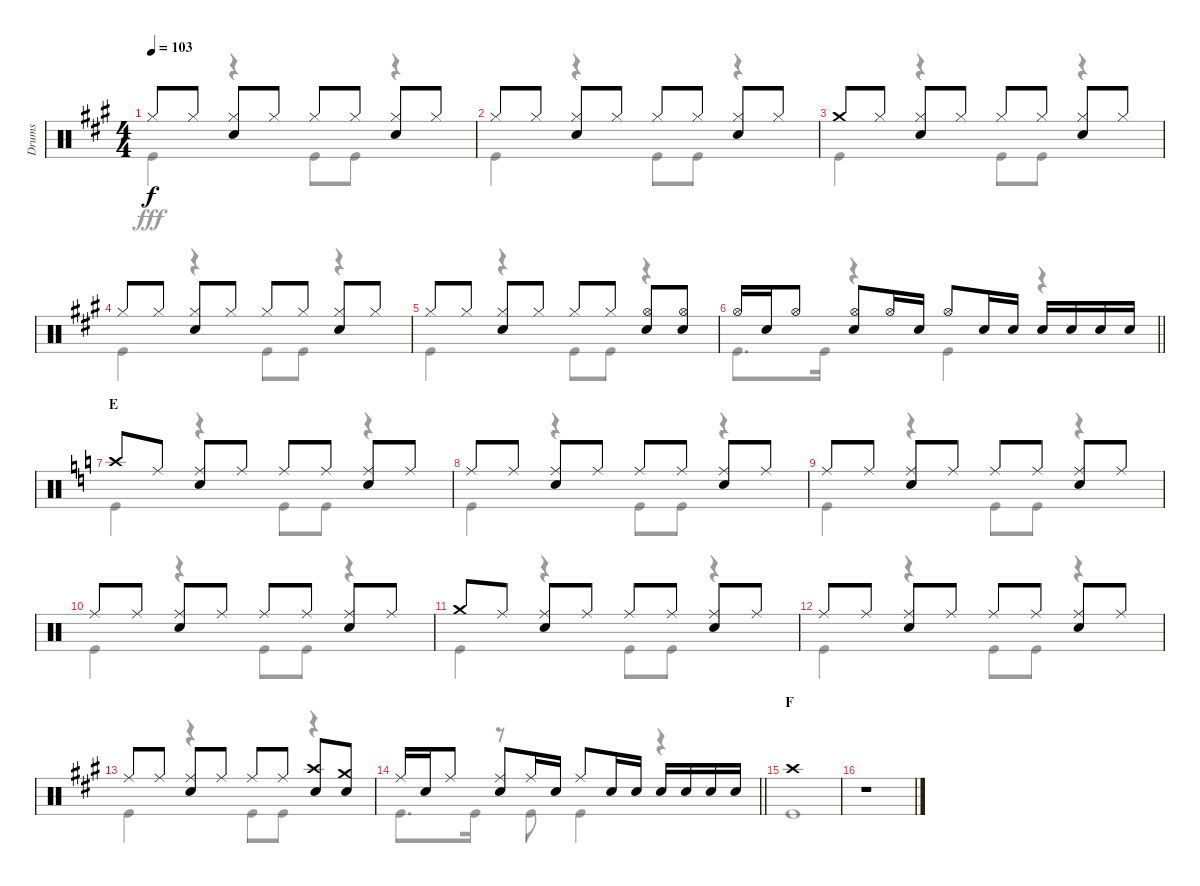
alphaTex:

\track ("Drums" "Drums") {instrument percussion}
\staff {score}
\articulation defaults
\voice
\ts (4 4)
\tempo 103
\clef neutral
\ks a "Hi-Hat (closed)".8{dy f} "Hi-Hat (closed)".8
("Hi-Hat (closed)" "Snare (hit) 2").8 "Hi-Hat (closed)".8 "Hi-Hat (closed)".8 "Hi-Hat (closed)".8 ("Hi-Hat (closed)" "Snare (hit) 2").8 "Hi-Hat (closed)".8 |
"Hi-Hat (closed)".8 "Hi-Hat (closed)".8 ("Hi-Hat (closed)" "Snare (hit) 2").8 "Hi-Hat (closed)".8 "Hi-Hat (closed)".8 "Hi-Hat (closed)".8 ("Hi-Hat (closed)" "Snare (hit) 2").8 "Hi-Hat (closed)".8 |
"Crash medium (hit)".8 "Hi-Hat (closed)".8 ("Hi-Hat (closed)" "Snare (hit) 2").8 "Hi-Hat (closed)".8 "Hi-Hat (closed)".8 "Hi-Hat (closed)".8 ("Hi-Hat (closed)" "Snare (hit) 2").8 "Hi-Hat (closed)".8 |
"Hi-Hat (closed)".8 "Hi-Hat (closed)".8 ("Hi-Hat (closed)" "Snare (hit) 2").8 "Hi-Hat (closed)".8 "Hi-Hat (closed)".8 "Hi-Hat (closed)".8 ("Hi-Hat (closed)" "Snare (hit) 2").8 "Hi-Hat (closed)".8 |
"Hi-Hat (closed)".8 "Hi-Hat (closed)".8 ("Hi-Hat (closed)" "Snare (hit) 2").8 "Hi-Hat (closed)".8 "Hi-Hat (closed)".8 "Hi-Hat (closed)".8 ("Hi-Hat (open)" "Snare (hit) 2").8 ("Hi-Hat (open)" "Snare (hit) 2").8 |
\barLineRight lightlight "Hi-Hat (open)".16 "Snare (hit) 2".16 "Hi-Hat (open)".8
("Hi-Hat (open)" "Snare (hit) 2").8 "Hi-Hat (open)".16 "Snare (hit) 2".16 "Hi-Hat (open)".8 "Snare (hit) 2".16 "Snare (hit) 2".16 "Snare (hit) 2".16 "Snare (hit) 2".16 "Snare (hit) 2".16 "Snare (hit) 2".16 |
\section ("" "E")
\ks c "Crash high (hit)".8 "Ride (middle)".8
("Ride (middle)" "Snare (hit) 2").8 "Ride (middle)".8 "Ride (middle)".8 "Ride (middle)".8 ("Ride (middle)" "Snare (hit) 2").8 "Ride (middle)".8 |
"Ride (middle)".8 "Ride (middle)".8 ("Ride (middle)" "Snare (hit) 2").8 "Ride (middle)".8 "Ride (middle)".8 "Ride (middle)".8 ("Ride (middle)" "Snare (hit) 2").8 "Ride (middle)".8 |
"Ride (middle)".8 "Ride (middle)".8 ("Ride (middle)" "Snare (hit) 2").8 "Ride (middle)".8 "Ride (middle)".8 "Ride (middle)".8 ("Ride (middle)" "Snare (hit) 2").8 "Ride (middle)".8 |
"Ride (middle)".8 "Ride (middle)".8 ("Ride (middle)" "Snare (hit) 2").8 "Ride (middle)".8 "Ride (middle)".8 "Ride (middle)".8 ("Ride (middle)" "Snare (hit) 2").8 "Ride (middle)".8 |
"Crash medium (hit)".8 "Ride (middle)".8 ("Ride (middle)" "Snare (hit) 2").8 "Ride (middle)".8 "Ride (middle)".8 "Ride (middle)".8 ("Ride (middle)" "Snare (hit) 2").8 "Ride (middle)".8 |
"Ride (middle)".8 "Ride (middle)".8 ("Ride (middle)" "Snare (hit) 2").8 "Ride (middle)".8 "Ride (middle)".8 "Ride (middle)".8 ("Ride (middle)" "Snare (hit) 2").8 "Ride (middle)".8 |
\ks a "Ride (middle)".8 "Ride (middle)".8
("Ride (middle)" "Snare (hit) 2").8 "Ride (middle)".8 "Ride (middle)".8 "Ride (middle)".8 ("Crash high (hit)" "Snare (hit) 2").8 ("Crash medium (hit)" "Snare (hit) 2").8 |
\barLineRight lightlight "Ride (middle)".16 "Snare (hit) 2".16 "Ride (middle)".8
("Ride (middle)" "Snare (hit) 2").8 "Ride (middle)".16 "Snare (hit) 2".16 "Ride (middle)".8 "Snare (hit) 2".16 "Snare (hit) 2".16 "Snare (hit) 2".16 "Snare (hit) 2".16 "Snare (hit) 2".16 "Snare (hit) 2".16 |
\section ("" "F")
"Crash high (hit)".1 |
r.1
\voice
\clef neutral
\ottava regular
\simile none
\ks a "Kick (hit)".4{dy fff}
r.4 "Kick (hit)".8 "Kick (hit)".8 r.4 |
"Kick (hit)".4 r.4 "Kick (hit)".8 "Kick (hit)".8 r.4 |
"Kick (hit)".4 r.4 "Kick (hit)".8 "Kick (hit)".8 r.4 |
"Kick (hit)".4 r.4 "Kick (hit)".8 "Kick (hit)".8 r.4 |
"Kick (hit)".4 r.4 "Kick (hit)".8 "Kick (hit)".8 r.4 |
\barLineRight lightlight "Kick (hit)".8{d} "Kick (hit)".16
r.4 "Kick (hit)".4 r.4 |
\ks c "Kick (hit)".4
r.4 "Kick (hit)".8 "Kick (hit)".8 r.4 |
"Kick (hit)".4 r.4 "Kick (hit)".8 "Kick (hit)".8 r.4 |
"Kick (hit)".4 r.4 "Kick (hit)".8 "Kick (hit)".8 r.4 |
"Kick (hit)".4 r.4 "Kick (hit)".8 "Kick (hit)".8 r.4 |
"Kick (hit)".4 r.4 "Kick (hit)".8 "Kick (hit)".8 r.4 |
"Kick (hit)".4 r.4 "Kick (hit)".8 "Kick (hit)".8 r.4 |
\ks a "Kick (hit)".4
r.4 "Kick (hit)".8 "Kick (hit)".8 r.4 |
\barLineRight lightlight "Kick (hit)".8{d} "Kick (hit)".16
r.8 "Kick (hit)".8 "Kick (hit)".4 r.4 |
"Kick (hit)".1 |
r.1
